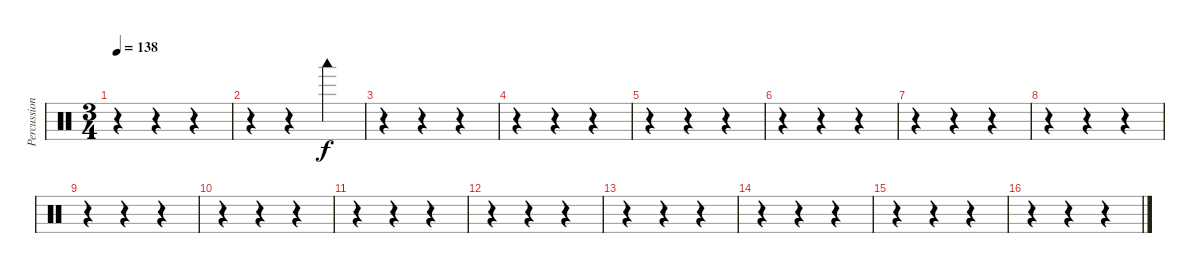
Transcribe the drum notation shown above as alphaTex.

\track ("Percussions" "Percussion") {instrument percussion}
\staff {score}
\articulation defaults
\ts (3 4)
\tempo 138
\clef neutral
\ks c
r.4{dy f} r.4 r.4 |
r.4 r.4 "Woodblock low (hit)".4 |
r.4 r.4 r.4 |
r.4 r.4 r.4 |
r.4 r.4 r.4 |
r.4 r.4 r.4 |
r.4 r.4 r.4 |
r.4 r.4 r.4 |
r.4 r.4 r.4 |
r.4 r.4 r.4 |
r.4 r.4 r.4 |
r.4 r.4 r.4 |
r.4 r.4 r.4 |
r.4 r.4 r.4 |
r.4 r.4 r.4 |
r.4 r.4 r.4
